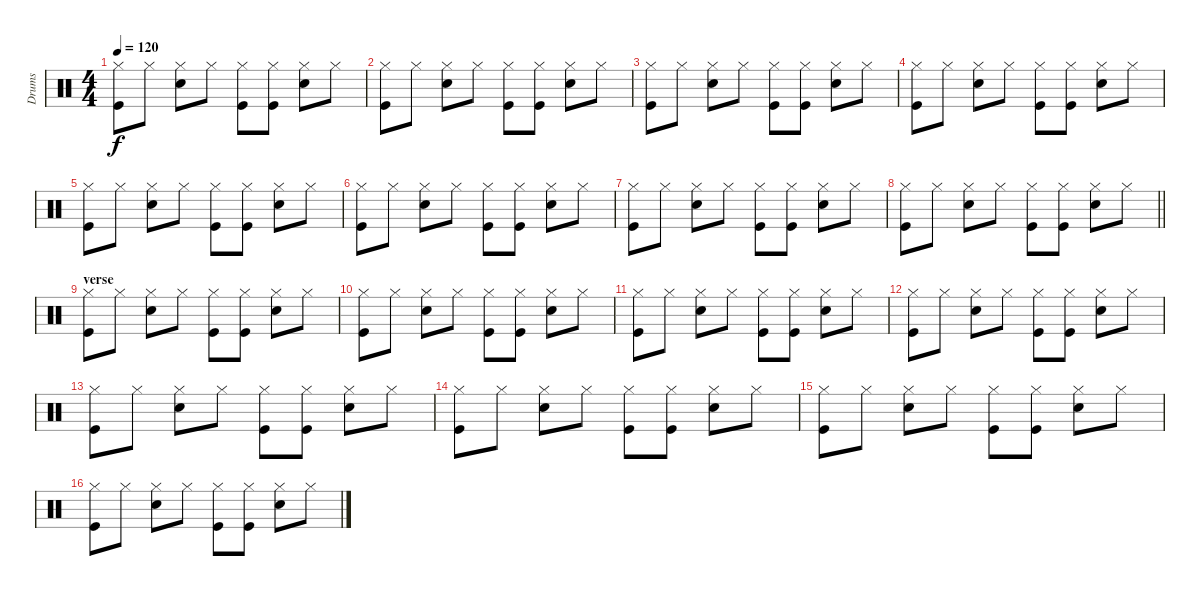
\track ("Drums" "Drums") {instrument percussion}
\staff {score}
\articulation defaults
\ts (4 4)
\tempo 120
\clef neutral
\ks c
("Hi-Hat (closed)" "Kick (hit)").8{dy f} "Hi-Hat (closed)".8 ("Hi-Hat (closed)" "Electric Snare (hit)").8 "Hi-Hat (closed)".8 ("Hi-Hat (closed)" "Kick (hit)").8 ("Hi-Hat (closed)" "Kick (hit)").8 ("Hi-Hat (closed)" "Electric Snare (hit)").8 "Hi-Hat (closed)".8 |
("Hi-Hat (closed)" "Kick (hit)").8 "Hi-Hat (closed)".8 ("Hi-Hat (closed)" "Electric Snare (hit)").8 "Hi-Hat (closed)".8 ("Hi-Hat (closed)" "Kick (hit)").8 ("Hi-Hat (closed)" "Kick (hit)").8 ("Hi-Hat (closed)" "Electric Snare (hit)").8 "Hi-Hat (closed)".8 |
("Hi-Hat (closed)" "Kick (hit)").8 "Hi-Hat (closed)".8 ("Hi-Hat (closed)" "Electric Snare (hit)").8 "Hi-Hat (closed)".8 ("Hi-Hat (closed)" "Kick (hit)").8 ("Hi-Hat (closed)" "Kick (hit)").8 ("Hi-Hat (closed)" "Electric Snare (hit)").8 "Hi-Hat (closed)".8 |
("Hi-Hat (closed)" "Kick (hit)").8 "Hi-Hat (closed)".8 ("Hi-Hat (closed)" "Electric Snare (hit)").8 "Hi-Hat (closed)".8 ("Hi-Hat (closed)" "Kick (hit)").8 ("Hi-Hat (closed)" "Kick (hit)").8 ("Hi-Hat (closed)" "Electric Snare (hit)").8 "Hi-Hat (closed)".8 |
("Hi-Hat (closed)" "Kick (hit)").8 "Hi-Hat (closed)".8 ("Hi-Hat (closed)" "Electric Snare (hit)").8 "Hi-Hat (closed)".8 ("Hi-Hat (closed)" "Kick (hit)").8 ("Hi-Hat (closed)" "Kick (hit)").8 ("Hi-Hat (closed)" "Electric Snare (hit)").8 "Hi-Hat (closed)".8 |
("Hi-Hat (closed)" "Kick (hit)").8 "Hi-Hat (closed)".8 ("Hi-Hat (closed)" "Electric Snare (hit)").8 "Hi-Hat (closed)".8 ("Hi-Hat (closed)" "Kick (hit)").8 ("Hi-Hat (closed)" "Kick (hit)").8 ("Hi-Hat (closed)" "Electric Snare (hit)").8 "Hi-Hat (closed)".8 |
("Hi-Hat (closed)" "Kick (hit)").8 "Hi-Hat (closed)".8 ("Hi-Hat (closed)" "Electric Snare (hit)").8 "Hi-Hat (closed)".8 ("Hi-Hat (closed)" "Kick (hit)").8 ("Hi-Hat (closed)" "Kick (hit)").8 ("Hi-Hat (closed)" "Electric Snare (hit)").8 "Hi-Hat (closed)".8 |
\barLineRight lightlight
("Hi-Hat (closed)" "Kick (hit)").8 "Hi-Hat (closed)".8 ("Hi-Hat (closed)" "Electric Snare (hit)").8 "Hi-Hat (closed)".8 ("Hi-Hat (closed)" "Kick (hit)").8 ("Hi-Hat (closed)" "Kick (hit)").8 ("Hi-Hat (closed)" "Electric Snare (hit)").8 "Hi-Hat (closed)".8 |
\section ("" "verse")
("Hi-Hat (closed)" "Kick (hit)").8 "Hi-Hat (closed)".8 ("Hi-Hat (closed)" "Electric Snare (hit)").8 "Hi-Hat (closed)".8 ("Hi-Hat (closed)" "Kick (hit)").8 ("Hi-Hat (closed)" "Kick (hit)").8 ("Hi-Hat (closed)" "Electric Snare (hit)").8 "Hi-Hat (closed)".8 |
("Hi-Hat (closed)" "Kick (hit)").8 "Hi-Hat (closed)".8 ("Hi-Hat (closed)" "Electric Snare (hit)").8 "Hi-Hat (closed)".8 ("Hi-Hat (closed)" "Kick (hit)").8 ("Hi-Hat (closed)" "Kick (hit)").8 ("Hi-Hat (closed)" "Electric Snare (hit)").8 "Hi-Hat (closed)".8 |
("Hi-Hat (closed)" "Kick (hit)").8 "Hi-Hat (closed)".8 ("Hi-Hat (closed)" "Electric Snare (hit)").8 "Hi-Hat (closed)".8 ("Hi-Hat (closed)" "Kick (hit)").8 ("Hi-Hat (closed)" "Kick (hit)").8 ("Hi-Hat (closed)" "Electric Snare (hit)").8 "Hi-Hat (closed)".8 |
("Hi-Hat (closed)" "Kick (hit)").8 "Hi-Hat (closed)".8 ("Hi-Hat (closed)" "Electric Snare (hit)").8 "Hi-Hat (closed)".8 ("Hi-Hat (closed)" "Kick (hit)").8 ("Hi-Hat (closed)" "Kick (hit)").8 ("Hi-Hat (closed)" "Electric Snare (hit)").8 "Hi-Hat (closed)".8 |
("Hi-Hat (closed)" "Kick (hit)").8 "Hi-Hat (closed)".8 ("Hi-Hat (closed)" "Electric Snare (hit)").8 "Hi-Hat (closed)".8 ("Hi-Hat (closed)" "Kick (hit)").8 ("Hi-Hat (closed)" "Kick (hit)").8 ("Hi-Hat (closed)" "Electric Snare (hit)").8 "Hi-Hat (closed)".8 |
("Hi-Hat (closed)" "Kick (hit)").8 "Hi-Hat (closed)".8 ("Hi-Hat (closed)" "Electric Snare (hit)").8 "Hi-Hat (closed)".8 ("Hi-Hat (closed)" "Kick (hit)").8 ("Hi-Hat (closed)" "Kick (hit)").8 ("Hi-Hat (closed)" "Electric Snare (hit)").8 "Hi-Hat (closed)".8 |
("Hi-Hat (closed)" "Kick (hit)").8 "Hi-Hat (closed)".8 ("Hi-Hat (closed)" "Electric Snare (hit)").8 "Hi-Hat (closed)".8 ("Hi-Hat (closed)" "Kick (hit)").8 ("Hi-Hat (closed)" "Kick (hit)").8 ("Hi-Hat (closed)" "Electric Snare (hit)").8 "Hi-Hat (closed)".8 |
("Hi-Hat (closed)" "Kick (hit)").8 "Hi-Hat (closed)".8 ("Hi-Hat (closed)" "Electric Snare (hit)").8 "Hi-Hat (closed)".8 ("Hi-Hat (closed)" "Kick (hit)").8 ("Hi-Hat (closed)" "Kick (hit)").8 ("Hi-Hat (closed)" "Electric Snare (hit)").8 "Hi-Hat (closed)".8
